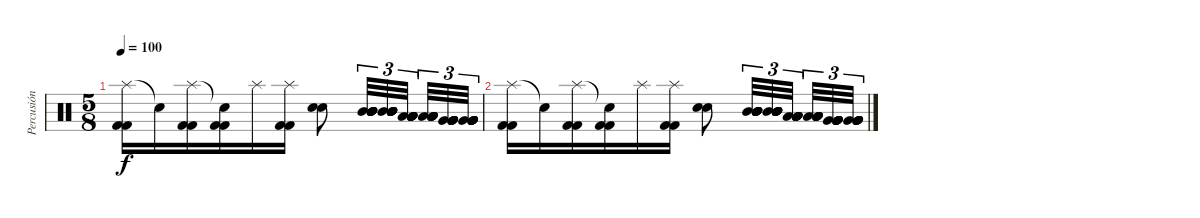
\track ("Percusión" "Percusión") {instrument percussion}
\staff {score}
\articulation defaults
\ts (5 8)
\tempo 100
\clef neutral
\ks c
("Splash (hit)" "Kick (hit) 2" "Kick (hit) 2").16{dy f} "Snare (hit)"{t}.16 ("Splash (hit)" "Kick (hit) 2" "Kick (hit) 2").16 ("Snare (hit)"{t} "Kick (hit) 2" "Kick (hit) 2").16 "Splash (hit)".16 ("Splash (hit)" "Kick (hit) 2" "Kick (hit) 2").16 ("Electric Snare (hit)" "Electric Snare (hit)").8 ("Mid Tom (hit)" "Mid Tom (hit)" "Mid Tom (hit)" "Mid Tom (hit)" "Mid Tom (hit)" "Mid Tom (hit)").32{tu (3 2)} ("Mid Tom (hit)" "Mid Tom (hit)" "Mid Tom (hit)" "Mid Tom (hit)" "Mid Tom (hit)" "Mid Tom (hit)").32{tu (3 2)} ("Low Tom (hit)" "Low Tom (hit)" "Low Tom (hit)" "Low Tom (hit)" "Low Tom (hit)" "Low Tom (hit)").32{tu (3 2)} ("Low Tom (hit)" "Low Tom (hit)" "Low Tom (hit)" "Low Tom (hit)" "Low Tom (hit)" "Low Tom (hit)").32{tu (3 2)} ("Very Low Tom (hit)" "Very Low Tom (hit)" "Very Low Tom (hit)" "Very Low Tom (hit)" "Very Low Tom (hit)" "Very Low Tom (hit)").32{tu (3 2)} ("Very Low Tom (hit)" "Very Low Tom (hit)" "Very Low Tom (hit)" "Very Low Tom (hit)" "Very Low Tom (hit)" "Very Low Tom (hit)").32{tu (3 2)} |
("Splash (hit)" "Kick (hit) 2" "Kick (hit) 2").16 "Snare (hit)"{t}.16 ("Splash (hit)" "Kick (hit) 2" "Kick (hit) 2").16 ("Snare (hit)"{t} "Kick (hit) 2" "Kick (hit) 2").16 "Splash (hit)".16 ("Splash (hit)" "Kick (hit) 2" "Kick (hit) 2").16 ("Electric Snare (hit)" "Electric Snare (hit)").8 ("Mid Tom (hit)" "Mid Tom (hit)" "Mid Tom (hit)" "Mid Tom (hit)" "Mid Tom (hit)" "Mid Tom (hit)").32{tu (3 2)} ("Mid Tom (hit)" "Mid Tom (hit)" "Mid Tom (hit)" "Mid Tom (hit)" "Mid Tom (hit)" "Mid Tom (hit)").32{tu (3 2)} ("Low Tom (hit)" "Low Tom (hit)" "Low Tom (hit)" "Low Tom (hit)" "Low Tom (hit)" "Low Tom (hit)").32{tu (3 2)} ("Low Tom (hit)" "Low Tom (hit)" "Low Tom (hit)" "Low Tom (hit)" "Low Tom (hit)" "Low Tom (hit)").32{tu (3 2)} ("Very Low Tom (hit)" "Very Low Tom (hit)" "Very Low Tom (hit)" "Very Low Tom (hit)" "Very Low Tom (hit)" "Very Low Tom (hit)").32{tu (3 2)} ("Very Low Tom (hit)" "Very Low Tom (hit)" "Very Low Tom (hit)" "Very Low Tom (hit)" "Very Low Tom (hit)" "Very Low Tom (hit)").32{tu (3 2)}
